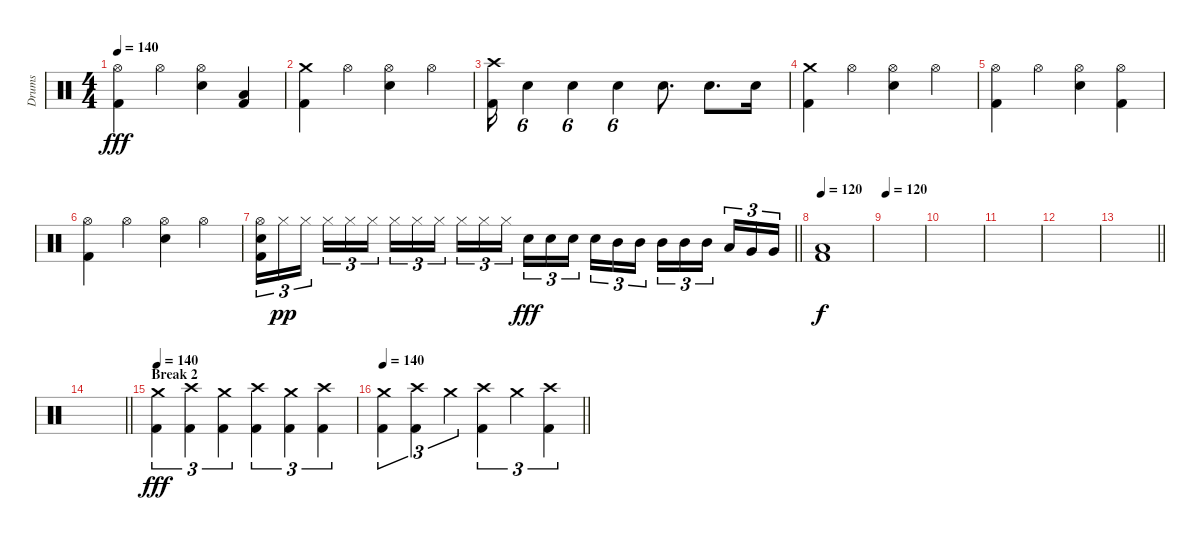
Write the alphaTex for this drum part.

\track ("Drums" "Drums") {instrument percussion}
\staff {score}
\articulation defaults
\ts (4 4)
\tempo 140
\clef neutral
\ks c
("Hi-Hat (open)" "Kick (hit) 2").4{dy fff} "Hi-Hat (open)".4 ("Hi-Hat (open)" "Electric Snare (hit)").4 ("Low Floor Tom (hit)" "Kick (hit) 2").4 |
("Crash medium (hit)" "Kick (hit) 2").4 "Hi-Hat (open)".4 ("Hi-Hat (open)" "Electric Snare (hit)").4 "Hi-Hat (open)".4 |
("Crash high (hit)" "Kick (hit) 2").16 "Electric Snare (hit)".4{tu (6 4)} "Electric Snare (hit)".4{tu (6 4)} "Electric Snare (hit)".4{tu (6 4)} "Electric Snare (hit)".8{d} "Electric Snare (hit)".8{d} "Electric Snare (hit)".16 |
("Crash medium (hit)" "Kick (hit) 2").4 "Hi-Hat (open)".4 ("Hi-Hat (open)" "Electric Snare (hit)").4 "Hi-Hat (open)".4 |
("Hi-Hat (open)" "Kick (hit) 2").4 "Hi-Hat (open)".4 ("Hi-Hat (open)" "Electric Snare (hit)").4 ("Hi-Hat (open)" "Kick (hit) 2").4 |
("Hi-Hat (open)" "Kick (hit) 2").4 "Hi-Hat (open)".4 ("Hi-Hat (open)" "Electric Snare (hit)").4 "Hi-Hat (open)".4 |
\barLineRight lightlight
("Hi-Hat (open)" "Electric Snare (hit)" "Kick (hit) 2").16{tu (3 2)} "Hi-Hat (closed)".16{tu (3 2) dy pp} "Hi-Hat (closed)".16{tu (3 2) beam splitsecondary} "Hi-Hat (closed)".16{tu (3 2)} "Hi-Hat (closed)".16{tu (3 2)} "Hi-Hat (closed)".16{tu (3 2)} "Hi-Hat (closed)".16{tu (3 2)} "Hi-Hat (closed)".16{tu (3 2)} "Hi-Hat (closed)".16{tu (3 2) beam splitsecondary} "Hi-Hat (closed)".16{tu (3 2)} "Hi-Hat (closed)".16{tu (3 2)} "Hi-Hat (closed)".16{tu (3 2)} "Electric Snare (hit)".16{tu (3 2) dy fff} "Electric Snare (hit)".16{tu (3 2)} "Electric Snare (hit)".16{tu (3 2) beam splitsecondary} "Electric Snare (hit)".16{tu (3 2)} "Mid Tom (hit)".16{tu (3 2)} "Mid Tom (hit)".16{tu (3 2)} "Mid Tom (hit)".16{tu (3 2)} "Mid Tom (hit)".16{tu (3 2)} "Mid Tom (hit)".16{tu (3 2) beam splitsecondary} "Low Tom (hit)".16{tu (3 2)} "Very Low Tom (hit)".16{tu (3 2)} "Very Low Tom (hit)".16{tu (3 2)} |
\tempo 120
("Low Floor Tom (hit)" "Kick (hit) 2").1{dy f} |
\tempo 120
|
|
|
|
\barLineRight lightlight
|
\barLineRight lightlight
|
\section ("" "Break 2")
\tempo 140
("Crash medium (hit)" "Kick (hit) 2").4{tu (3 2) dy fff} ("Crash high (hit)" "Kick (hit) 2").4{tu (3 2)} ("Crash medium (hit)" "Kick (hit) 2").4{tu (3 2)} ("Crash high (hit)" "Kick (hit) 2").4{tu (3 2)} ("Crash medium (hit)" "Kick (hit) 2").4{tu (3 2)} ("Crash high (hit)" "Kick (hit) 2").4{tu (3 2)} |
\tempo 140
\barLineRight lightlight
("Crash medium (hit)" "Kick (hit) 2").4{tu (3 2)} ("Crash high (hit)" "Kick (hit) 2").4{tu (3 2)} "Crash medium (hit)".4{tu (3 2)} ("Crash high (hit)" "Kick (hit) 2").4{tu (3 2)} "Crash medium (hit)".4{tu (3 2)} ("Crash high (hit)" "Kick (hit) 2").4{tu (3 2)}
